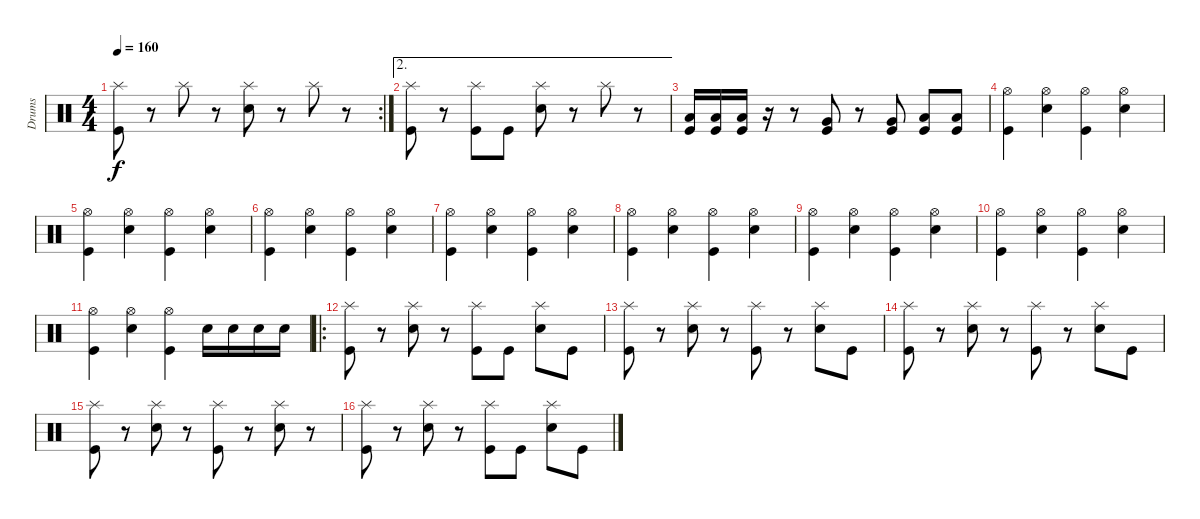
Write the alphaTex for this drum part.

\track ("Drums" "Drums") {instrument percussion}
\staff {score}
\articulation defaults
\rc 2
\ts (4 4)
\tempo 160
\clef neutral
\ks c
("Kick (hit)" "Splash (hit)").8{dy f} r.8 "Splash (hit)".8 r.8 ("Electric Snare (hit)" "Splash (hit)").8 r.8 "Splash (hit)".8 r.8 |
\ae 2
("Kick (hit)" "Splash (hit)").8 r.8 ("Kick (hit)" "Splash (hit)").8 "Kick (hit)".8 ("Electric Snare (hit)" "Splash (hit)").8 r.8 "Splash (hit)".8 r.8 |
("Kick (hit)" "Low Tom (hit)").16 ("Kick (hit)" "Low Tom (hit)").16 ("Kick (hit)" "Low Tom (hit)").16 r.16 r.8 ("Kick (hit)" "Very Low Tom (hit)").8 r.8 ("Kick (hit)" "Very Low Tom (hit)").8 ("Kick (hit)" "Low Floor Tom (hit)").8 ("Kick (hit)" "Low Floor Tom (hit)").8 |
("Kick (hit)" "Hi-Hat (open)").4 ("Electric Snare (hit)" "Hi-Hat (open)").4 ("Kick (hit)" "Hi-Hat (open)").4 ("Electric Snare (hit)" "Hi-Hat (open)").4 |
("Kick (hit)" "Hi-Hat (open)").4 ("Electric Snare (hit)" "Hi-Hat (open)").4 ("Kick (hit)" "Hi-Hat (open)").4 ("Electric Snare (hit)" "Hi-Hat (open)").4 |
("Kick (hit)" "Hi-Hat (open)").4 ("Electric Snare (hit)" "Hi-Hat (open)").4 ("Kick (hit)" "Hi-Hat (open)").4 ("Electric Snare (hit)" "Hi-Hat (open)").4 |
("Kick (hit)" "Hi-Hat (open)").4 ("Electric Snare (hit)" "Hi-Hat (open)").4 ("Kick (hit)" "Hi-Hat (open)").4 ("Electric Snare (hit)" "Hi-Hat (open)").4 |
("Kick (hit)" "Hi-Hat (open)").4 ("Electric Snare (hit)" "Hi-Hat (open)").4 ("Kick (hit)" "Hi-Hat (open)").4 ("Electric Snare (hit)" "Hi-Hat (open)").4 |
("Kick (hit)" "Hi-Hat (open)").4 ("Electric Snare (hit)" "Hi-Hat (open)").4 ("Kick (hit)" "Hi-Hat (open)").4 ("Electric Snare (hit)" "Hi-Hat (open)").4 |
("Kick (hit)" "Hi-Hat (open)").4 ("Electric Snare (hit)" "Hi-Hat (open)").4 ("Kick (hit)" "Hi-Hat (open)").4 ("Electric Snare (hit)" "Hi-Hat (open)").4 |
("Kick (hit)" "Hi-Hat (open)").4 ("Electric Snare (hit)" "Hi-Hat (open)").4 ("Kick (hit)" "Hi-Hat (open)").4 "Electric Snare (hit)".16 "Electric Snare (hit)".16 "Electric Snare (hit)".16 "Electric Snare (hit)".16 |
\ro
("Kick (hit)" "Splash (hit)").8 r.8 ("Electric Snare (hit)" "Splash (hit)").8 r.8 ("Kick (hit)" "Splash (hit)").8 "Kick (hit)".8 ("Electric Snare (hit)" "Splash (hit)").8 "Kick (hit)".8 |
("Kick (hit)" "Splash (hit)").8 r.8 ("Electric Snare (hit)" "Splash (hit)").8 r.8 ("Kick (hit)" "Splash (hit)").8 r.8 ("Electric Snare (hit)" "Splash (hit)").8 "Kick (hit)".8 |
("Kick (hit)" "Splash (hit)").8 r.8 ("Electric Snare (hit)" "Splash (hit)").8 r.8 ("Kick (hit)" "Splash (hit)").8 r.8 ("Electric Snare (hit)" "Splash (hit)").8 "Kick (hit)".8 |
("Kick (hit)" "Splash (hit)").8 r.8 ("Electric Snare (hit)" "Splash (hit)").8 r.8 ("Kick (hit)" "Splash (hit)").8 r.8 ("Electric Snare (hit)" "Splash (hit)").8 r.8 |
("Kick (hit)" "Splash (hit)").8 r.8 ("Electric Snare (hit)" "Splash (hit)").8 r.8 ("Kick (hit)" "Splash (hit)").8 "Kick (hit)".8 ("Electric Snare (hit)" "Splash (hit)").8 "Kick (hit)".8
